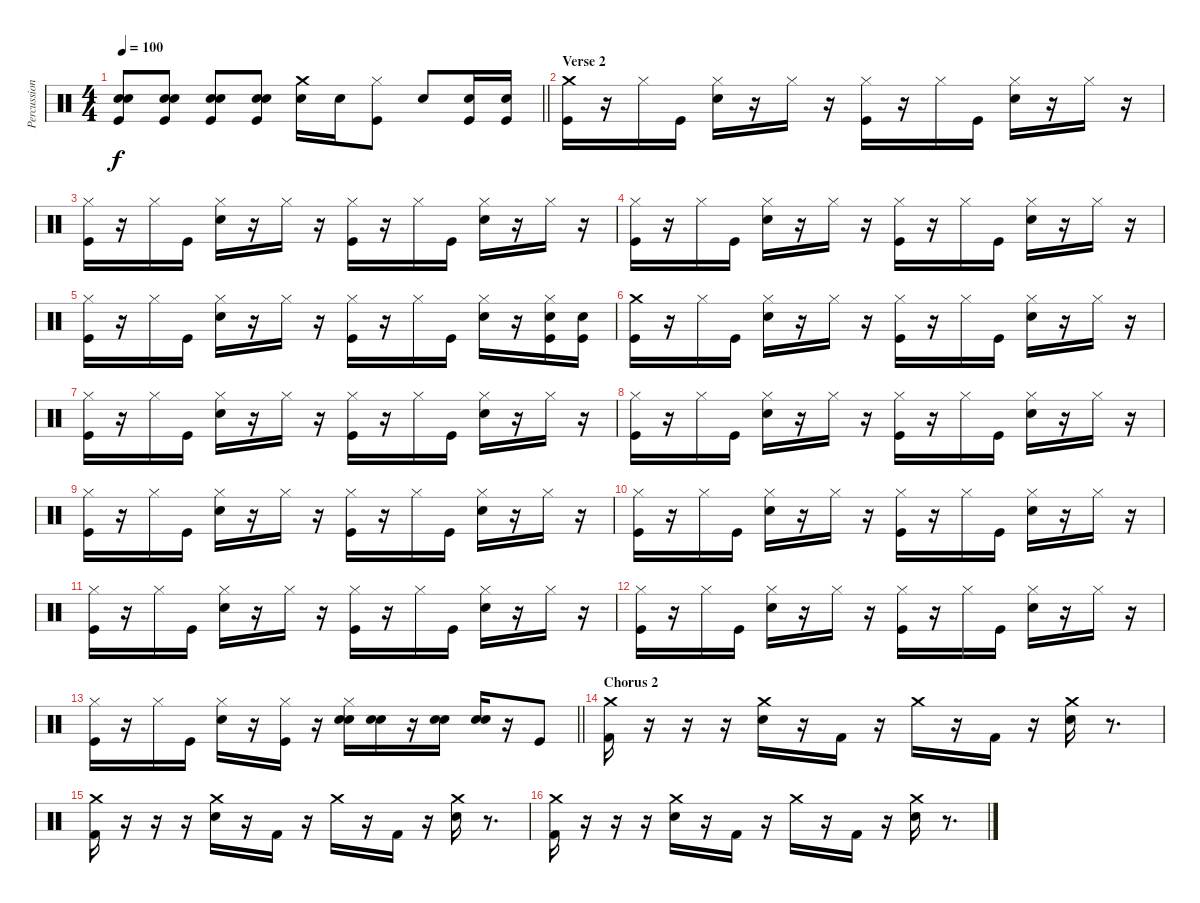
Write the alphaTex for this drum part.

\track ("Percussion (Chad Smith)" "Percussion") {instrument percussion}
\staff {score}
\articulation defaults
\ts (4 4)
\tempo 100
\clef neutral
\barLineRight lightlight
\ks c
("Snare (hit) 2" "Electric Snare (hit)" "Kick (hit)").8{dy f} ("Snare (hit) 2" "Electric Snare (hit)" "Kick (hit)").8 ("Snare (hit) 2" "Electric Snare (hit)" "Kick (hit)").8 ("Snare (hit) 2" "Electric Snare (hit)" "Kick (hit)").8 ("Crash medium (hit)" "Electric Snare (hit)").16 "Electric Snare (hit)".16 ("Hi-Hat (closed)" "Kick (hit)").8 "Electric Snare (hit)".8 ("Electric Snare (hit)" "Kick (hit)").16 ("Electric Snare (hit)" "Kick (hit)").16 |
\section ("" "Verse 2")
("Crash medium (hit)" "Kick (hit)").16 r.16 "Hi-Hat (closed)".16 "Kick (hit)".16 ("Hi-Hat (closed)" "Snare (hit) 2").16 r.16 "Hi-Hat (closed)".16 r.16 ("Hi-Hat (closed)" "Kick (hit)").16 r.16 "Hi-Hat (closed)".16 "Kick (hit)".16 ("Hi-Hat (closed)" "Snare (hit) 2").16 r.16 "Hi-Hat (closed)".16 r.16 |
("Hi-Hat (closed)" "Kick (hit)").16 r.16 "Hi-Hat (closed)".16 "Kick (hit)".16 ("Hi-Hat (closed)" "Snare (hit) 2").16 r.16 "Hi-Hat (closed)".16 r.16 ("Hi-Hat (closed)" "Kick (hit)").16 r.16 "Hi-Hat (closed)".16 "Kick (hit)".16 ("Hi-Hat (closed)" "Snare (hit) 2").16 r.16 "Hi-Hat (closed)".16 r.16 |
("Hi-Hat (closed)" "Kick (hit)").16 r.16 "Hi-Hat (closed)".16 "Kick (hit)".16 ("Hi-Hat (closed)" "Snare (hit) 2").16 r.16 "Hi-Hat (closed)".16 r.16 ("Hi-Hat (closed)" "Kick (hit)").16 r.16 "Hi-Hat (closed)".16 "Kick (hit)".16 ("Hi-Hat (closed)" "Snare (hit) 2").16 r.16 "Hi-Hat (closed)".16 r.16 |
("Hi-Hat (closed)" "Kick (hit)").16 r.16 "Hi-Hat (closed)".16 "Kick (hit)".16 ("Hi-Hat (closed)" "Snare (hit) 2").16 r.16 "Hi-Hat (closed)".16 r.16 ("Hi-Hat (closed)" "Kick (hit)").16 r.16 "Hi-Hat (closed)".16 "Kick (hit)".16 ("Hi-Hat (closed)" "Snare (hit) 2").16 r.16 ("Hi-Hat (closed)" "Snare (hit) 2" "Kick (hit)").16 ("Snare (hit) 2" "Kick (hit)").16 |
("Crash medium (hit)" "Kick (hit)").16 r.16 "Hi-Hat (closed)".16 "Kick (hit)".16 ("Hi-Hat (closed)" "Snare (hit) 2").16 r.16 "Hi-Hat (closed)".16 r.16 ("Hi-Hat (closed)" "Kick (hit)").16 r.16 "Hi-Hat (closed)".16 "Kick (hit)".16 ("Hi-Hat (closed)" "Snare (hit) 2").16 r.16 "Hi-Hat (closed)".16 r.16 |
("Hi-Hat (closed)" "Kick (hit)").16 r.16 "Hi-Hat (closed)".16 "Kick (hit)".16 ("Hi-Hat (closed)" "Snare (hit) 2").16 r.16 "Hi-Hat (closed)".16 r.16 ("Hi-Hat (closed)" "Kick (hit)").16 r.16 "Hi-Hat (closed)".16 "Kick (hit)".16 ("Hi-Hat (closed)" "Snare (hit) 2").16 r.16 "Hi-Hat (closed)".16 r.16 |
("Hi-Hat (closed)" "Kick (hit)").16 r.16 "Hi-Hat (closed)".16 "Kick (hit)".16 ("Hi-Hat (closed)" "Snare (hit) 2").16 r.16 "Hi-Hat (closed)".16 r.16 ("Hi-Hat (closed)" "Kick (hit)").16 r.16 "Hi-Hat (closed)".16 "Kick (hit)".16 ("Hi-Hat (closed)" "Snare (hit) 2").16 r.16 "Hi-Hat (closed)".16 r.16 |
("Hi-Hat (closed)" "Kick (hit)").16 r.16 "Hi-Hat (closed)".16 "Kick (hit)".16 ("Hi-Hat (closed)" "Snare (hit) 2").16 r.16 "Hi-Hat (closed)".16 r.16 ("Hi-Hat (closed)" "Kick (hit)").16 r.16 "Hi-Hat (closed)".16 "Kick (hit)".16 ("Hi-Hat (closed)" "Snare (hit) 2").16 r.16 "Hi-Hat (closed)".16 r.16 |
("Hi-Hat (closed)" "Kick (hit)").16 r.16 "Hi-Hat (closed)".16 "Kick (hit)".16 ("Hi-Hat (closed)" "Snare (hit) 2").16 r.16 "Hi-Hat (closed)".16 r.16 ("Hi-Hat (closed)" "Kick (hit)").16 r.16 "Hi-Hat (closed)".16 "Kick (hit)".16 ("Hi-Hat (closed)" "Snare (hit) 2").16 r.16 "Hi-Hat (closed)".16 r.16 |
("Hi-Hat (closed)" "Kick (hit)").16 r.16 "Hi-Hat (closed)".16 "Kick (hit)".16 ("Hi-Hat (closed)" "Snare (hit) 2").16 r.16 "Hi-Hat (closed)".16 r.16 ("Hi-Hat (closed)" "Kick (hit)").16 r.16 "Hi-Hat (closed)".16 "Kick (hit)".16 ("Hi-Hat (closed)" "Snare (hit) 2").16 r.16 "Hi-Hat (closed)".16 r.16 |
("Hi-Hat (closed)" "Kick (hit)").16 r.16 "Hi-Hat (closed)".16 "Kick (hit)".16 ("Hi-Hat (closed)" "Snare (hit) 2").16 r.16 "Hi-Hat (closed)".16 r.16 ("Hi-Hat (closed)" "Kick (hit)").16 r.16 "Hi-Hat (closed)".16 "Kick (hit)".16 ("Hi-Hat (closed)" "Snare (hit) 2").16 r.16 "Hi-Hat (closed)".16 r.16 |
\barLineRight lightlight
("Hi-Hat (closed)" "Kick (hit)").16 r.16 "Hi-Hat (closed)".16 "Kick (hit)".16 ("Hi-Hat (closed)" "Snare (hit) 2").16 r.16 ("Hi-Hat (closed)" "Kick (hit)").16 r.16 ("Hi-Hat (closed)" "Snare (hit) 2" "Electric Snare (hit)").16 ("Snare (hit) 2" "Electric Snare (hit)").16 r.16 ("Snare (hit) 2" "Electric Snare (hit)").16 ("Snare (hit) 2" "Electric Snare (hit)").16 r.16 "Kick (hit)".8 |
\section ("" "Chorus 2")
("Crash medium (hit)" "Kick (hit) 2").16 r.16 r.16 r.16 ("Crash medium (hit)" "Electric Snare (hit)").16 r.16 "Kick (hit) 2".16 r.16 "Crash medium (hit)".16 r.16 "Kick (hit) 2".16 r.16 ("Crash medium (hit)" "Electric Snare (hit)").16 r.8{d} |
("Crash medium (hit)" "Kick (hit) 2").16 r.16 r.16 r.16 ("Crash medium (hit)" "Electric Snare (hit)").16 r.16 "Kick (hit) 2".16 r.16 "Crash medium (hit)".16 r.16 "Kick (hit) 2".16 r.16 ("Crash medium (hit)" "Electric Snare (hit)").16 r.8{d} |
("Crash medium (hit)" "Kick (hit) 2").16 r.16 r.16 r.16 ("Crash medium (hit)" "Electric Snare (hit)").16 r.16 "Kick (hit) 2".16 r.16 "Crash medium (hit)".16 r.16 "Kick (hit) 2".16 r.16 ("Crash medium (hit)" "Electric Snare (hit)").16 r.8{d}
